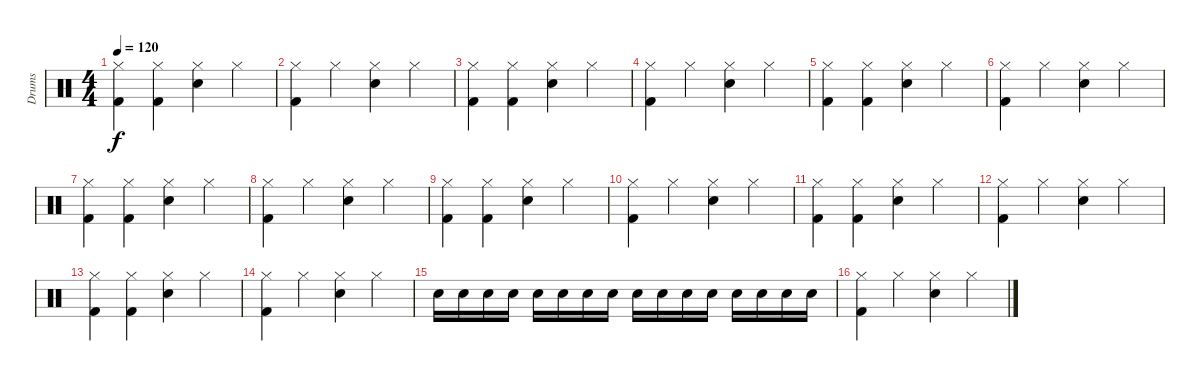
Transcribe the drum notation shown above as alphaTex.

\track ("Drums" "Drums") {instrument percussion}
\staff {score}
\articulation defaults
\ts (4 4)
\tempo 120
\clef neutral
\ks c
("Kick (hit) 2" "Hi-Hat (closed)").4{dy f} ("Kick (hit) 2" "Hi-Hat (closed)").4 ("Snare (hit) 2" "Hi-Hat (closed)").4 "Hi-Hat (closed)".4 |
("Kick (hit) 2" "Hi-Hat (closed)").4 "Hi-Hat (closed)".4 ("Snare (hit) 2" "Hi-Hat (closed)").4 "Hi-Hat (closed)".4 |
("Kick (hit) 2" "Hi-Hat (closed)").4 ("Kick (hit) 2" "Hi-Hat (closed)").4 ("Snare (hit) 2" "Hi-Hat (closed)").4 "Hi-Hat (closed)".4 |
("Kick (hit) 2" "Hi-Hat (closed)").4 "Hi-Hat (closed)".4 ("Snare (hit) 2" "Hi-Hat (closed)").4 "Hi-Hat (closed)".4 |
("Kick (hit) 2" "Hi-Hat (closed)").4 ("Kick (hit) 2" "Hi-Hat (closed)").4 ("Snare (hit) 2" "Hi-Hat (closed)").4 "Hi-Hat (closed)".4 |
("Kick (hit) 2" "Hi-Hat (closed)").4 "Hi-Hat (closed)".4 ("Snare (hit) 2" "Hi-Hat (closed)").4 "Hi-Hat (closed)".4 |
("Kick (hit) 2" "Hi-Hat (closed)").4 ("Kick (hit) 2" "Hi-Hat (closed)").4 ("Snare (hit) 2" "Hi-Hat (closed)").4 "Hi-Hat (closed)".4 |
("Kick (hit) 2" "Hi-Hat (closed)").4 "Hi-Hat (closed)".4 ("Snare (hit) 2" "Hi-Hat (closed)").4 "Hi-Hat (closed)".4 |
("Kick (hit) 2" "Hi-Hat (closed)").4 ("Kick (hit) 2" "Hi-Hat (closed)").4 ("Snare (hit) 2" "Hi-Hat (closed)").4 "Hi-Hat (closed)".4 |
("Kick (hit) 2" "Hi-Hat (closed)").4 "Hi-Hat (closed)".4 ("Snare (hit) 2" "Hi-Hat (closed)").4 "Hi-Hat (closed)".4 |
("Kick (hit) 2" "Hi-Hat (closed)").4 ("Kick (hit) 2" "Hi-Hat (closed)").4 ("Snare (hit) 2" "Hi-Hat (closed)").4 "Hi-Hat (closed)".4 |
("Kick (hit) 2" "Hi-Hat (closed)").4 "Hi-Hat (closed)".4 ("Snare (hit) 2" "Hi-Hat (closed)").4 "Hi-Hat (closed)".4 |
("Kick (hit) 2" "Hi-Hat (closed)").4 ("Kick (hit) 2" "Hi-Hat (closed)").4 ("Snare (hit) 2" "Hi-Hat (closed)").4 "Hi-Hat (closed)".4 |
("Kick (hit) 2" "Hi-Hat (closed)").4 "Hi-Hat (closed)".4 ("Snare (hit) 2" "Hi-Hat (closed)").4 "Hi-Hat (closed)".4 |
"Snare (hit) 2".16 "Snare (hit) 2".16 "Snare (hit) 2".16 "Snare (hit) 2".16 "Snare (hit) 2".16 "Snare (hit) 2".16 "Snare (hit) 2".16 "Snare (hit) 2".16 "Snare (hit) 2".16 "Snare (hit) 2".16 "Snare (hit) 2".16 "Snare (hit) 2".16 "Snare (hit) 2".16 "Snare (hit) 2".16 "Snare (hit) 2".16 "Snare (hit) 2".16 |
("Kick (hit) 2" "Hi-Hat (closed)").4 "Hi-Hat (closed)".4 ("Snare (hit) 2" "Hi-Hat (closed)").4 "Hi-Hat (closed)".4
